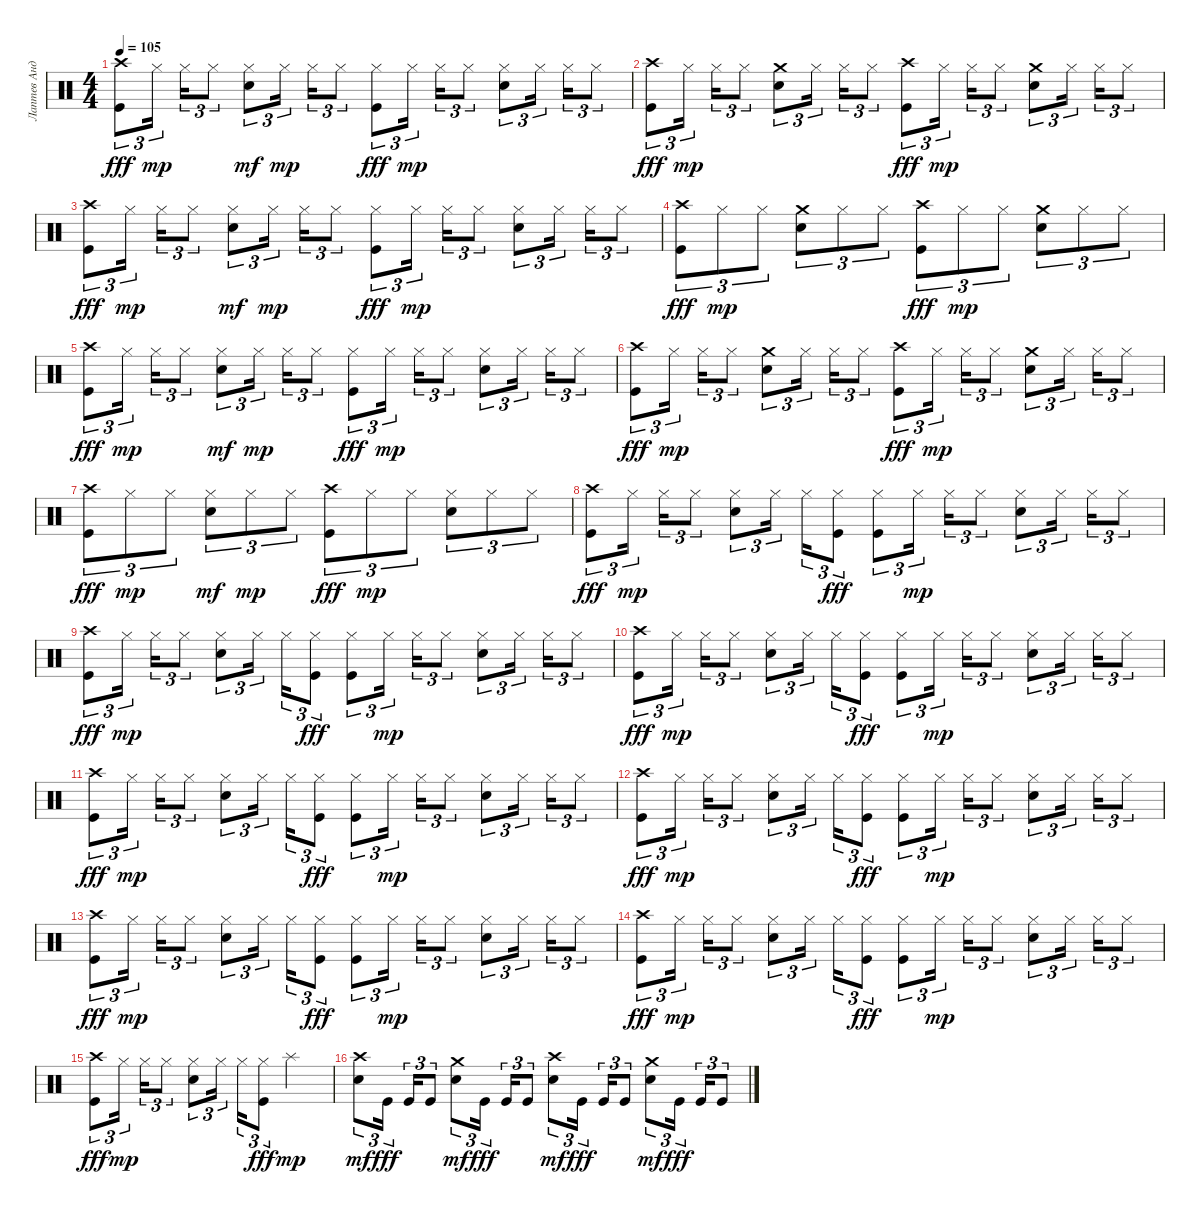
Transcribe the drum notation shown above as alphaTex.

\track ("Лаптев Андрей" "Лаптев Анд") {instrument percussion}
\staff {score}
\articulation defaults
\ts (4 4)
\tempo 105
\clef neutral
\ks c
("Crash high (hit)" "Kick (hit)").8{tu (3 2) dy fff} "Hi-Hat (closed)".16{tu (3 2) dy mp} "Hi-Hat (closed)".16{tu (3 2)} "Hi-Hat (closed)".8{tu (3 2)} ("Hi-Hat (closed)" "Electric Snare (hit)").8{tu (3 2) dy mf} "Hi-Hat (closed)".16{tu (3 2) dy mp} "Hi-Hat (closed)".16{tu (3 2)} "Hi-Hat (closed)".8{tu (3 2)} ("Hi-Hat (closed)" "Kick (hit)").8{tu (3 2) dy fff} "Hi-Hat (closed)".16{tu (3 2) dy mp} "Hi-Hat (closed)".16{tu (3 2)} "Hi-Hat (closed)".8{tu (3 2)} ("Hi-Hat (closed)" "Electric Snare (hit)").8{tu (3 2)} "Hi-Hat (closed)".16{tu (3 2)} "Hi-Hat (closed)".16{tu (3 2)} "Hi-Hat (closed)".8{tu (3 2)} |
("Crash high (hit)" "Kick (hit)").8{tu (3 2) dy fff} "Hi-Hat (closed)".16{tu (3 2) dy mp} "Hi-Hat (closed)".16{tu (3 2)} "Hi-Hat (closed)".8{tu (3 2)} ("Electric Snare (hit)" "Crash medium (hit)").8{tu (3 2)} "Hi-Hat (closed)".16{tu (3 2)} "Hi-Hat (closed)".16{tu (3 2)} "Hi-Hat (closed)".8{tu (3 2)} ("Crash high (hit)" "Kick (hit)").8{tu (3 2) dy fff} "Hi-Hat (closed)".16{tu (3 2) dy mp} "Hi-Hat (closed)".16{tu (3 2)} "Hi-Hat (closed)".8{tu (3 2)} ("Crash medium (hit)" "Electric Snare (hit)").8{tu (3 2)} "Hi-Hat (closed)".16{tu (3 2)} "Hi-Hat (closed)".16{tu (3 2)} "Hi-Hat (closed)".8{tu (3 2)} |
("Crash high (hit)" "Kick (hit)").8{tu (3 2) dy fff} "Hi-Hat (closed)".16{tu (3 2) dy mp} "Hi-Hat (closed)".16{tu (3 2)} "Hi-Hat (closed)".8{tu (3 2)} ("Hi-Hat (closed)" "Electric Snare (hit)").8{tu (3 2) dy mf} "Hi-Hat (closed)".16{tu (3 2) dy mp} "Hi-Hat (closed)".16{tu (3 2)} "Hi-Hat (closed)".8{tu (3 2)} ("Hi-Hat (closed)" "Kick (hit)").8{tu (3 2) dy fff} "Hi-Hat (closed)".16{tu (3 2) dy mp} "Hi-Hat (closed)".16{tu (3 2)} "Hi-Hat (closed)".8{tu (3 2)} ("Hi-Hat (closed)" "Electric Snare (hit)").8{tu (3 2)} "Hi-Hat (closed)".16{tu (3 2)} "Hi-Hat (closed)".16{tu (3 2)} "Hi-Hat (closed)".8{tu (3 2)} |
("Crash high (hit)" "Kick (hit)").8{tu (3 2) dy fff} "Hi-Hat (closed)".8{tu (3 2) dy mp} "Hi-Hat (closed)".8{tu (3 2)} ("Electric Snare (hit)" "Crash medium (hit)").8{tu (3 2)} "Hi-Hat (closed)".8{tu (3 2)} "Hi-Hat (closed)".8{tu (3 2)} ("Crash high (hit)" "Kick (hit)").8{tu (3 2) dy fff} "Hi-Hat (closed)".8{tu (3 2) dy mp} "Hi-Hat (closed)".8{tu (3 2)} ("Crash medium (hit)" "Electric Snare (hit)").8{tu (3 2)} "Hi-Hat (closed)".8{tu (3 2)} "Hi-Hat (closed)".8{tu (3 2)} |
("Crash high (hit)" "Kick (hit)").8{tu (3 2) dy fff} "Hi-Hat (closed)".16{tu (3 2) dy mp} "Hi-Hat (closed)".16{tu (3 2)} "Hi-Hat (closed)".8{tu (3 2)} ("Hi-Hat (closed)" "Electric Snare (hit)").8{tu (3 2) dy mf} "Hi-Hat (closed)".16{tu (3 2) dy mp} "Hi-Hat (closed)".16{tu (3 2)} "Hi-Hat (closed)".8{tu (3 2)} ("Hi-Hat (closed)" "Kick (hit)").8{tu (3 2) dy fff} "Hi-Hat (closed)".16{tu (3 2) dy mp} "Hi-Hat (closed)".16{tu (3 2)} "Hi-Hat (closed)".8{tu (3 2)} ("Hi-Hat (closed)" "Electric Snare (hit)").8{tu (3 2)} "Hi-Hat (closed)".16{tu (3 2)} "Hi-Hat (closed)".16{tu (3 2)} "Hi-Hat (closed)".8{tu (3 2)} |
("Crash high (hit)" "Kick (hit)").8{tu (3 2) dy fff} "Hi-Hat (closed)".16{tu (3 2) dy mp} "Hi-Hat (closed)".16{tu (3 2)} "Hi-Hat (closed)".8{tu (3 2)} ("Electric Snare (hit)" "Crash medium (hit)").8{tu (3 2)} "Hi-Hat (closed)".16{tu (3 2)} "Hi-Hat (closed)".16{tu (3 2)} "Hi-Hat (closed)".8{tu (3 2)} ("Crash high (hit)" "Kick (hit)").8{tu (3 2) dy fff} "Hi-Hat (closed)".16{tu (3 2) dy mp} "Hi-Hat (closed)".16{tu (3 2)} "Hi-Hat (closed)".8{tu (3 2)} ("Crash medium (hit)" "Electric Snare (hit)").8{tu (3 2)} "Hi-Hat (closed)".16{tu (3 2)} "Hi-Hat (closed)".16{tu (3 2)} "Hi-Hat (closed)".8{tu (3 2)} |
("Crash high (hit)" "Kick (hit)").8{tu (3 2) dy fff} "Hi-Hat (closed)".8{tu (3 2) dy mp} "Hi-Hat (closed)".8{tu (3 2)} ("Hi-Hat (closed)" "Electric Snare (hit)").8{tu (3 2) dy mf} "Hi-Hat (closed)".8{tu (3 2) dy mp} "Hi-Hat (closed)".8{tu (3 2)} ("Crash high (hit)" "Kick (hit)").8{tu (3 2) dy fff} "Hi-Hat (closed)".8{tu (3 2) dy mp} "Hi-Hat (closed)".8{tu (3 2)} ("Hi-Hat (closed)" "Electric Snare (hit)").8{tu (3 2)} "Hi-Hat (closed)".8{tu (3 2)} "Hi-Hat (closed)".8{tu (3 2)} |
("Crash high (hit)" "Kick (hit)").8{tu (3 2) dy fff} "Hi-Hat (closed)".16{tu (3 2) dy mp} "Hi-Hat (closed)".16{tu (3 2)} "Hi-Hat (closed)".8{tu (3 2)} ("Electric Snare (hit)" "Hi-Hat (closed)").8{tu (3 2)} "Hi-Hat (closed)".16{tu (3 2)} "Hi-Hat (closed)".16{tu (3 2)} ("Hi-Hat (closed)" "Kick (hit)").8{tu (3 2) dy fff} ("Hi-Hat (closed)" "Kick (hit)").8{tu (3 2)} "Hi-Hat (closed)".16{tu (3 2) dy mp} "Hi-Hat (closed)".16{tu (3 2)} "Hi-Hat (closed)".8{tu (3 2)} ("Hi-Hat (closed)" "Electric Snare (hit)").8{tu (3 2)} "Hi-Hat (closed)".16{tu (3 2)} "Hi-Hat (closed)".16{tu (3 2)} "Hi-Hat (closed)".8{tu (3 2)} |
("Crash high (hit)" "Kick (hit)").8{tu (3 2) dy fff} "Hi-Hat (closed)".16{tu (3 2) dy mp} "Hi-Hat (closed)".16{tu (3 2)} "Hi-Hat (closed)".8{tu (3 2)} ("Electric Snare (hit)" "Hi-Hat (closed)").8{tu (3 2)} "Hi-Hat (closed)".16{tu (3 2)} "Hi-Hat (closed)".16{tu (3 2)} ("Hi-Hat (closed)" "Kick (hit)").8{tu (3 2) dy fff} ("Hi-Hat (closed)" "Kick (hit)").8{tu (3 2)} "Hi-Hat (closed)".16{tu (3 2) dy mp} "Hi-Hat (closed)".16{tu (3 2)} "Hi-Hat (closed)".8{tu (3 2)} ("Hi-Hat (closed)" "Electric Snare (hit)").8{tu (3 2)} "Hi-Hat (closed)".16{tu (3 2)} "Hi-Hat (closed)".16{tu (3 2)} "Hi-Hat (closed)".8{tu (3 2)} |
("Crash high (hit)" "Kick (hit)").8{tu (3 2) dy fff} "Hi-Hat (closed)".16{tu (3 2) dy mp} "Hi-Hat (closed)".16{tu (3 2)} "Hi-Hat (closed)".8{tu (3 2)} ("Electric Snare (hit)" "Hi-Hat (closed)").8{tu (3 2)} "Hi-Hat (closed)".16{tu (3 2)} "Hi-Hat (closed)".16{tu (3 2)} ("Hi-Hat (closed)" "Kick (hit)").8{tu (3 2) dy fff} ("Hi-Hat (closed)" "Kick (hit)").8{tu (3 2)} "Hi-Hat (closed)".16{tu (3 2) dy mp} "Hi-Hat (closed)".16{tu (3 2)} "Hi-Hat (closed)".8{tu (3 2)} ("Hi-Hat (closed)" "Electric Snare (hit)").8{tu (3 2)} "Hi-Hat (closed)".16{tu (3 2)} "Hi-Hat (closed)".16{tu (3 2)} "Hi-Hat (closed)".8{tu (3 2)} |
("Crash high (hit)" "Kick (hit)").8{tu (3 2) dy fff} "Hi-Hat (closed)".16{tu (3 2) dy mp} "Hi-Hat (closed)".16{tu (3 2)} "Hi-Hat (closed)".8{tu (3 2)} ("Electric Snare (hit)" "Hi-Hat (closed)").8{tu (3 2)} "Hi-Hat (closed)".16{tu (3 2)} "Hi-Hat (closed)".16{tu (3 2)} ("Hi-Hat (closed)" "Kick (hit)").8{tu (3 2) dy fff} ("Hi-Hat (closed)" "Kick (hit)").8{tu (3 2)} "Hi-Hat (closed)".16{tu (3 2) dy mp} "Hi-Hat (closed)".16{tu (3 2)} "Hi-Hat (closed)".8{tu (3 2)} ("Hi-Hat (closed)" "Electric Snare (hit)").8{tu (3 2)} "Hi-Hat (closed)".16{tu (3 2)} "Hi-Hat (closed)".16{tu (3 2)} "Hi-Hat (closed)".8{tu (3 2)} |
("Crash high (hit)" "Kick (hit)").8{tu (3 2) dy fff} "Hi-Hat (closed)".16{tu (3 2) dy mp} "Hi-Hat (closed)".16{tu (3 2)} "Hi-Hat (closed)".8{tu (3 2)} ("Electric Snare (hit)" "Hi-Hat (closed)").8{tu (3 2)} "Hi-Hat (closed)".16{tu (3 2)} "Hi-Hat (closed)".16{tu (3 2)} ("Hi-Hat (closed)" "Kick (hit)").8{tu (3 2) dy fff} ("Hi-Hat (closed)" "Kick (hit)").8{tu (3 2)} "Hi-Hat (closed)".16{tu (3 2) dy mp} "Hi-Hat (closed)".16{tu (3 2)} "Hi-Hat (closed)".8{tu (3 2)} ("Hi-Hat (closed)" "Electric Snare (hit)").8{tu (3 2)} "Hi-Hat (closed)".16{tu (3 2)} "Hi-Hat (closed)".16{tu (3 2)} "Hi-Hat (closed)".8{tu (3 2)} |
("Crash high (hit)" "Kick (hit)").8{tu (3 2) dy fff} "Hi-Hat (closed)".16{tu (3 2) dy mp} "Hi-Hat (closed)".16{tu (3 2)} "Hi-Hat (closed)".8{tu (3 2)} ("Electric Snare (hit)" "Hi-Hat (closed)").8{tu (3 2)} "Hi-Hat (closed)".16{tu (3 2)} "Hi-Hat (closed)".16{tu (3 2)} ("Hi-Hat (closed)" "Kick (hit)").8{tu (3 2) dy fff} ("Hi-Hat (closed)" "Kick (hit)").8{tu (3 2)} "Hi-Hat (closed)".16{tu (3 2) dy mp} "Hi-Hat (closed)".16{tu (3 2)} "Hi-Hat (closed)".8{tu (3 2)} ("Hi-Hat (closed)" "Electric Snare (hit)").8{tu (3 2)} "Hi-Hat (closed)".16{tu (3 2)} "Hi-Hat (closed)".16{tu (3 2)} "Hi-Hat (closed)".8{tu (3 2)} |
("Crash high (hit)" "Kick (hit)").8{tu (3 2) dy fff} "Hi-Hat (closed)".16{tu (3 2) dy mp} "Hi-Hat (closed)".16{tu (3 2)} "Hi-Hat (closed)".8{tu (3 2)} ("Electric Snare (hit)" "Hi-Hat (closed)").8{tu (3 2)} "Hi-Hat (closed)".16{tu (3 2)} "Hi-Hat (closed)".16{tu (3 2)} ("Hi-Hat (closed)" "Kick (hit)").8{tu (3 2) dy fff} ("Hi-Hat (closed)" "Kick (hit)").8{tu (3 2)} "Hi-Hat (closed)".16{tu (3 2) dy mp} "Hi-Hat (closed)".16{tu (3 2)} "Hi-Hat (closed)".8{tu (3 2)} ("Hi-Hat (closed)" "Electric Snare (hit)").8{tu (3 2)} "Hi-Hat (closed)".16{tu (3 2)} "Hi-Hat (closed)".16{tu (3 2)} "Hi-Hat (closed)".8{tu (3 2)} |
("Crash high (hit)" "Kick (hit)").8{tu (3 2) dy fff} "Hi-Hat (closed)".16{tu (3 2) dy mp} "Hi-Hat (closed)".16{tu (3 2)} "Hi-Hat (closed)".8{tu (3 2)} ("Electric Snare (hit)" "Hi-Hat (closed)").8{tu (3 2)} "Hi-Hat (closed)".16{tu (3 2)} "Hi-Hat (closed)".16{tu (3 2)} ("Hi-Hat (closed)" "Kick (hit)").8{tu (3 2) dy fff} "Splash (hit)".2{dy mp} |
("Crash high (hit)" "Electric Snare (hit)").8{tu (3 2) dy mf} "Kick (hit)".16{tu (3 2) dy fff} "Kick (hit)".16{tu (3 2)} "Kick (hit)".8{tu (3 2)} ("Electric Snare (hit)" "Crash medium (hit)").8{tu (3 2) dy mf} "Kick (hit)".16{tu (3 2) dy fff} "Kick (hit)".16{tu (3 2)} "Kick (hit)".8{tu (3 2)} ("Crash high (hit)" "Electric Snare (hit)").8{tu (3 2) dy mf} "Kick (hit)".16{tu (3 2) dy fff} "Kick (hit)".16{tu (3 2)} "Kick (hit)".8{tu (3 2)} ("Crash medium (hit)" "Electric Snare (hit)").8{tu (3 2) dy mf} "Kick (hit)".16{tu (3 2) dy fff} "Kick (hit)".16{tu (3 2)} "Kick (hit)".8{tu (3 2)}
